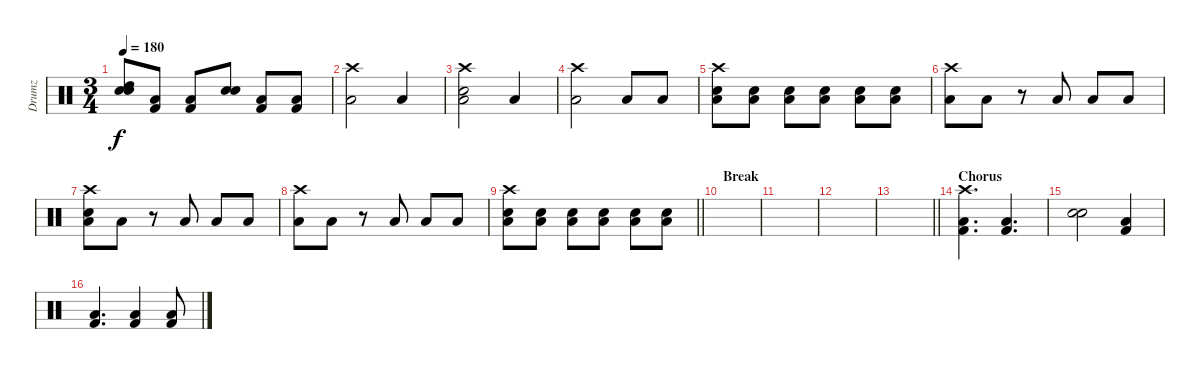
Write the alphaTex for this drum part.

\track ("Drumz" "Drumz") {instrument percussion}
\staff {score}
\articulation defaults
\ts (3 4)
\tempo 180
\clef neutral
\ks c
("Electric Snare (hit)" "Electric Snare (hit)" "High Tom (hit)").8{dy f} ("Low Floor Tom (hit)" "Kick (hit) 2").8 ("Low Floor Tom (hit)" "Kick (hit) 2").8 ("Electric Snare (hit)" "Electric Snare (hit)").8 ("Kick (hit) 2" "Low Floor Tom (hit)").8 ("Kick (hit) 2" "Low Floor Tom (hit)").8 |
("Low Floor Tom (hit)" "Crash high (hit)").2 "Low Floor Tom (hit)".4 |
("Low Floor Tom (hit)" "Crash high (hit)" "Electric Snare (hit)").2 "Low Floor Tom (hit)".4 |
("Low Floor Tom (hit)" "Crash high (hit)").2 "Low Floor Tom (hit)".8 "Low Floor Tom (hit)".8 |
("Low Floor Tom (hit)" "Crash high (hit)" "Snare (hit) 2").8 ("Low Floor Tom (hit)" "Snare (hit) 2").8 ("Low Floor Tom (hit)" "Snare (hit) 2").8 ("Low Floor Tom (hit)" "Snare (hit) 2").8 ("Low Floor Tom (hit)" "Snare (hit) 2").8 ("Low Floor Tom (hit)" "Snare (hit) 2").8 |
("Low Floor Tom (hit)" "Crash high (hit)").8 "Low Floor Tom (hit)".8 r.8 "Low Floor Tom (hit)".8 "Low Floor Tom (hit)".8 "Low Floor Tom (hit)".8 |
("Low Floor Tom (hit)" "Crash high (hit)" "Electric Snare (hit)").8 "Low Floor Tom (hit)".8 r.8 "Low Floor Tom (hit)".8 "Low Floor Tom (hit)".8 "Low Floor Tom (hit)".8 |
("Low Floor Tom (hit)" "Crash high (hit)").8 "Low Floor Tom (hit)".8 r.8 "Low Floor Tom (hit)".8 "Low Floor Tom (hit)".8 "Low Floor Tom (hit)".8 |
\barLineRight lightlight
("Low Floor Tom (hit)" "Crash high (hit)" "Snare (hit) 2").8 ("Low Floor Tom (hit)" "Snare (hit) 2").8 ("Low Floor Tom (hit)" "Snare (hit) 2").8 ("Low Floor Tom (hit)" "Snare (hit) 2").8 ("Low Floor Tom (hit)" "Snare (hit) 2").8 ("Low Floor Tom (hit)" "Snare (hit) 2").8 |
\section ("" "Break")
|
|
|
\barLineRight lightlight
|
\section ("" "Chorus")
("Kick (hit) 2" "Low Floor Tom (hit)" "Crash high (hit)").4{d} ("Kick (hit) 2" "Low Floor Tom (hit)").4{d} |
("Electric Snare (hit)" "Electric Snare (hit)").2 ("Kick (hit) 2" "Low Floor Tom (hit)").4 |
("Kick (hit) 2" "Low Floor Tom (hit)").4{d} ("Kick (hit) 2" "Low Floor Tom (hit)").4 ("Kick (hit) 2" "Low Floor Tom (hit)").8
